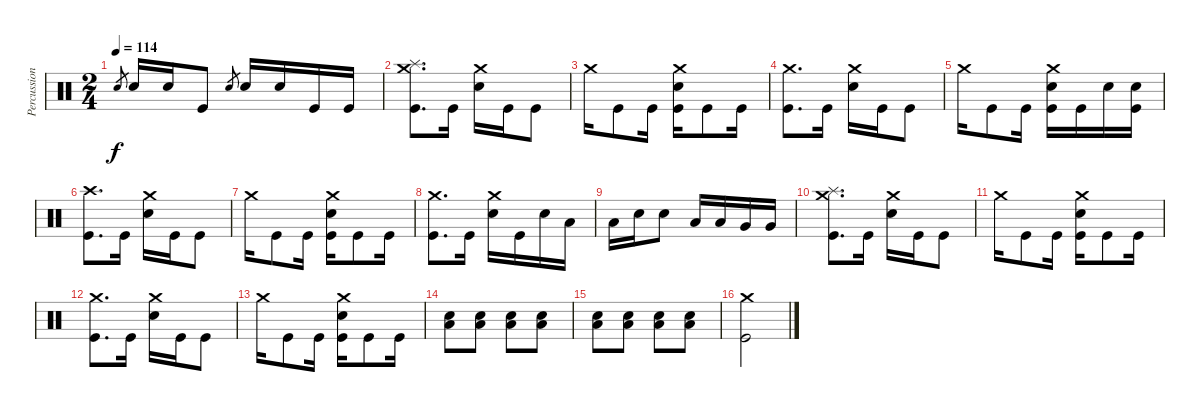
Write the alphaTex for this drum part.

\track ("Percussion" "Percussion") {instrument percussion}
\staff {score}
\articulation defaults
\ts (2 4)
\tempo 114
\clef neutral
\ks c "Electric Snare (hit)".8{gr dy f} "Electric Snare (hit)".16 "Electric Snare (hit)".16 "Kick (hit)".8 "Electric Snare (hit)".8{gr} "Electric Snare (hit)".16 "Electric Snare (hit)".16 "Kick (hit)".16 "Kick (hit)".16
|
("Crash medium (hit)" "Splash (hit)" "Kick (hit)").8{d} "Kick (hit)".16 ("Crash medium (hit)" "Electric Snare (hit)").16 "Kick (hit)".16 "Kick (hit)".8 |
"Crash medium (hit)".16 "Kick (hit)".8 "Kick (hit)".16 ("Crash medium (hit)" "Electric Snare (hit)" "Kick (hit)").16 "Kick (hit)".8 "Kick (hit)".16 |
("Crash medium (hit)" "Kick (hit)").8{d} "Kick (hit)".16 ("Crash medium (hit)" "Electric Snare (hit)").16 "Kick (hit)".16 "Kick (hit)".8 |
"Crash medium (hit)".16 "Kick (hit)".8 "Kick (hit)".16 ("Crash medium (hit)" "Electric Snare (hit)" "Kick (hit)").16 "Kick (hit)".16 "Electric Snare (hit)".16 ("Electric Snare (hit)" "Kick (hit)").16 |
("Crash high (hit)" "Kick (hit)").8{d} "Kick (hit)".16 ("Crash medium (hit)" "Electric Snare (hit)").16 "Kick (hit)".16 "Kick (hit)".8 |
"Crash medium (hit)".16 "Kick (hit)".8 "Kick (hit)".16 ("Crash medium (hit)" "Electric Snare (hit)" "Kick (hit)").16 "Kick (hit)".8 "Kick (hit)".16 |
("Crash medium (hit)" "Kick (hit)").8{d} "Kick (hit)".16 ("Crash medium (hit)" "Electric Snare (hit)").16 "Kick (hit)".16 "Electric Snare (hit)".16 "Low Tom (hit)".16 |
"Low Tom (hit)".16 "Electric Snare (hit)".16 "Electric Snare (hit)".8 "Low Tom (hit)".16 "Low Tom (hit)".16 "Very Low Tom (hit)".16 "Very Low Tom (hit)".16 |
("Crash medium (hit)" "Splash (hit)" "Kick (hit)").8{d} "Kick (hit)".16 ("Crash medium (hit)" "Electric Snare (hit)").16 "Kick (hit)".16 "Kick (hit)".8 |
"Crash medium (hit)".16 "Kick (hit)".8 "Kick (hit)".16 ("Crash medium (hit)" "Electric Snare (hit)" "Kick (hit)").16 "Kick (hit)".8 "Kick (hit)".16 |
("Crash medium (hit)" "Kick (hit)").8{d} "Kick (hit)".16 ("Crash medium (hit)" "Electric Snare (hit)").16 "Kick (hit)".16 "Kick (hit)".8 |
"Crash medium (hit)".16 "Kick (hit)".8 "Kick (hit)".16 ("Crash medium (hit)" "Electric Snare (hit)" "Kick (hit)").16 "Kick (hit)".8 "Kick (hit)".16 |
("Electric Snare (hit)" "Low Floor Tom (hit)").8 ("Electric Snare (hit)" "Low Floor Tom (hit)").8 ("Electric Snare (hit)" "Low Floor Tom (hit)").8 ("Electric Snare (hit)" "Low Floor Tom (hit)").8 |
("Electric Snare (hit)" "Low Floor Tom (hit)").8 ("Electric Snare (hit)" "Low Floor Tom (hit)").8 ("Electric Snare (hit)" "Low Floor Tom (hit)").8 ("Electric Snare (hit)" "Low Floor Tom (hit)").8 |
("Crash medium (hit)" "Kick (hit)").2
